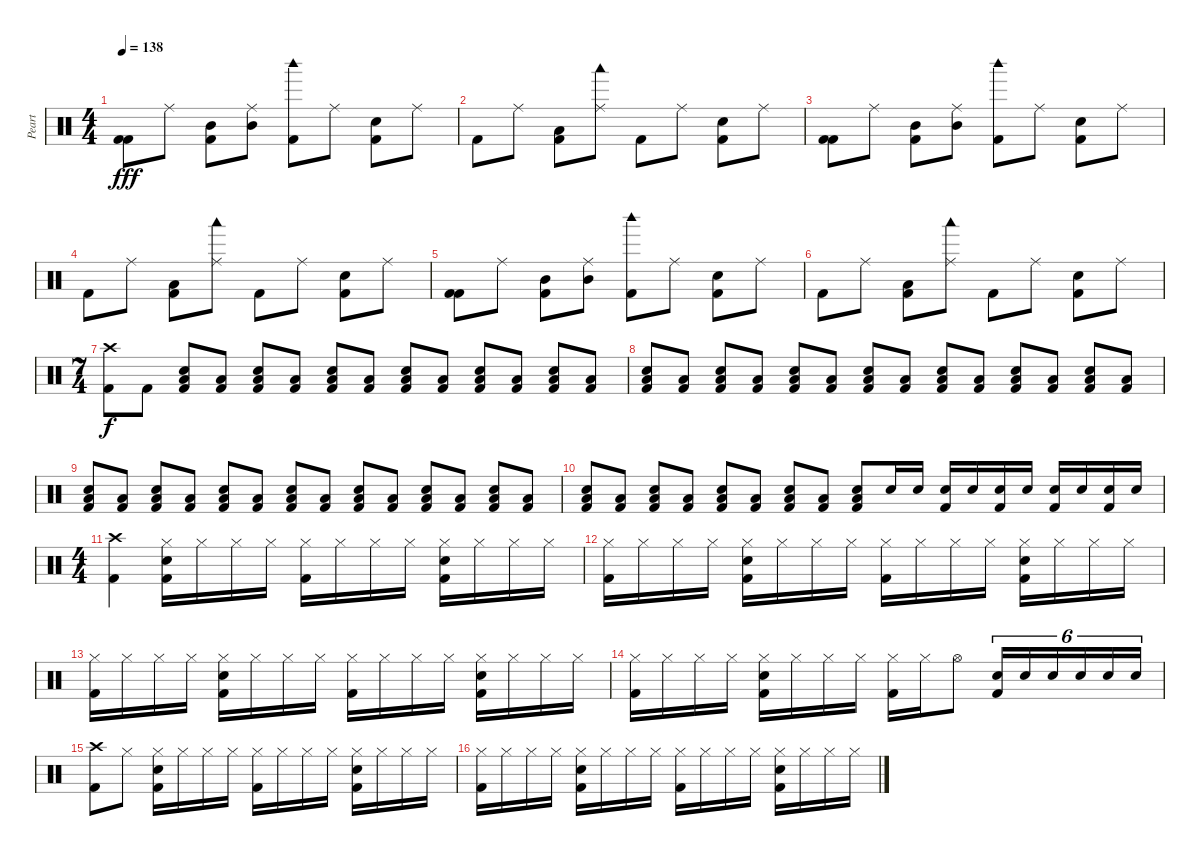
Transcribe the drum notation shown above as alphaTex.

\track ("Peart" "Peart") {instrument percussion}
\staff {score}
\articulation defaults
\ts (4 4)
\tempo 138
\clef neutral
\ks c
("Kick (hit) 2" "Kick (hit) 2").8{dy fff} "Ride (middle)".8 ("Mid Tom (hit)" "Kick (hit) 2").8 ("Ride (middle)" "Mid Tom (hit)").8 ("Woodblock high (hit)" "Kick (hit) 2").8 "Ride (middle)".8 ("Electric Snare (hit)" "Kick (hit) 2").8 "Ride (middle)".8 |
"Kick (hit) 2".8 "Ride (middle)".8 ("Low Tom (hit)" "Kick (hit) 2").8 ("Ride (middle)" "Woodblock low (hit)").8 "Kick (hit) 2".8 "Ride (middle)".8 ("Electric Snare (hit)" "Kick (hit) 2").8 "Ride (middle)".8 |
("Kick (hit) 2" "Kick (hit) 2").8 "Ride (middle)".8 ("Mid Tom (hit)" "Kick (hit) 2").8 ("Ride (middle)" "Mid Tom (hit)").8 ("Woodblock high (hit)" "Kick (hit) 2").8 "Ride (middle)".8 ("Electric Snare (hit)" "Kick (hit) 2").8 "Ride (middle)".8 |
"Kick (hit) 2".8 "Ride (middle)".8 ("Low Tom (hit)" "Kick (hit) 2").8 ("Ride (middle)" "Woodblock low (hit)").8 "Kick (hit) 2".8 "Ride (middle)".8 ("Electric Snare (hit)" "Kick (hit) 2").8 "Ride (middle)".8 |
("Kick (hit) 2" "Kick (hit) 2").8 "Ride (middle)".8 ("Mid Tom (hit)" "Kick (hit) 2").8 ("Ride (middle)" "Mid Tom (hit)").8 ("Woodblock high (hit)" "Kick (hit) 2").8 "Ride (middle)".8 ("Electric Snare (hit)" "Kick (hit) 2").8 "Ride (middle)".8 |
"Kick (hit) 2".8 "Ride (middle)".8 ("Low Tom (hit)" "Kick (hit) 2").8 ("Ride (middle)" "Woodblock low (hit)").8 "Kick (hit) 2".8 "Ride (middle)".8 ("Electric Snare (hit)" "Kick (hit) 2").8 "Ride (middle)".8 |
\ts (7 4)
("Crash high (hit)" "Kick (hit) 2").8{dy f} "Kick (hit) 2".8 ("Electric Snare (hit)" "Low Floor Tom (hit)" "Kick (hit) 2").8 ("Low Floor Tom (hit)" "Kick (hit) 2").8 ("Electric Snare (hit)" "Low Floor Tom (hit)" "Kick (hit) 2").8 ("Low Floor Tom (hit)" "Kick (hit) 2").8 ("Electric Snare (hit)" "Low Floor Tom (hit)" "Kick (hit) 2").8 ("Low Floor Tom (hit)" "Kick (hit) 2").8 ("Electric Snare (hit)" "Low Floor Tom (hit)" "Kick (hit) 2").8 ("Low Floor Tom (hit)" "Kick (hit) 2").8 ("Electric Snare (hit)" "Low Floor Tom (hit)" "Kick (hit) 2").8 ("Low Floor Tom (hit)" "Kick (hit) 2").8 ("Electric Snare (hit)" "Low Floor Tom (hit)" "Kick (hit) 2").8 ("Low Floor Tom (hit)" "Kick (hit) 2").8 |
("Low Floor Tom (hit)" "Electric Snare (hit)" "Kick (hit) 2").8 ("Low Floor Tom (hit)" "Kick (hit) 2").8 ("Electric Snare (hit)" "Low Floor Tom (hit)" "Kick (hit) 2").8 ("Low Floor Tom (hit)" "Kick (hit) 2").8 ("Electric Snare (hit)" "Low Floor Tom (hit)" "Kick (hit) 2").8 ("Low Floor Tom (hit)" "Kick (hit) 2").8 ("Electric Snare (hit)" "Low Floor Tom (hit)" "Kick (hit) 2").8 ("Low Floor Tom (hit)" "Kick (hit) 2").8 ("Electric Snare (hit)" "Low Floor Tom (hit)" "Kick (hit) 2").8 ("Low Floor Tom (hit)" "Kick (hit) 2").8 ("Electric Snare (hit)" "Low Floor Tom (hit)" "Kick (hit) 2").8 ("Low Floor Tom (hit)" "Kick (hit) 2").8 ("Electric Snare (hit)" "Low Floor Tom (hit)" "Kick (hit) 2").8 ("Low Floor Tom (hit)" "Kick (hit) 2").8 |
("Low Floor Tom (hit)" "Electric Snare (hit)" "Kick (hit) 2").8 ("Low Floor Tom (hit)" "Kick (hit) 2").8 ("Electric Snare (hit)" "Low Floor Tom (hit)" "Kick (hit) 2").8 ("Low Floor Tom (hit)" "Kick (hit) 2").8 ("Electric Snare (hit)" "Low Floor Tom (hit)" "Kick (hit) 2").8 ("Low Floor Tom (hit)" "Kick (hit) 2").8 ("Electric Snare (hit)" "Low Floor Tom (hit)" "Kick (hit) 2").8 ("Low Floor Tom (hit)" "Kick (hit) 2").8 ("Electric Snare (hit)" "Low Floor Tom (hit)" "Kick (hit) 2").8 ("Low Floor Tom (hit)" "Kick (hit) 2").8 ("Electric Snare (hit)" "Low Floor Tom (hit)" "Kick (hit) 2").8 ("Low Floor Tom (hit)" "Kick (hit) 2").8 ("Electric Snare (hit)" "Low Floor Tom (hit)" "Kick (hit) 2").8 ("Low Floor Tom (hit)" "Kick (hit) 2").8 |
("Low Floor Tom (hit)" "Electric Snare (hit)" "Kick (hit) 2").8 ("Low Floor Tom (hit)" "Kick (hit) 2").8 ("Electric Snare (hit)" "Low Floor Tom (hit)" "Kick (hit) 2").8 ("Low Floor Tom (hit)" "Kick (hit) 2").8 ("Electric Snare (hit)" "Low Floor Tom (hit)" "Kick (hit) 2").8 ("Low Floor Tom (hit)" "Kick (hit) 2").8 ("Electric Snare (hit)" "Low Floor Tom (hit)" "Kick (hit) 2").8 ("Low Floor Tom (hit)" "Kick (hit) 2").8 ("Electric Snare (hit)" "Low Floor Tom (hit)" "Kick (hit) 2").8 "Electric Snare (hit)".16 "Electric Snare (hit)".16 ("Electric Snare (hit)" "Kick (hit) 2").16 "Electric Snare (hit)".16 ("Electric Snare (hit)" "Kick (hit) 2").16 "Electric Snare (hit)".16 ("Electric Snare (hit)" "Kick (hit) 2").16 "Electric Snare (hit)".16 ("Electric Snare (hit)" "Kick (hit) 2").16 "Electric Snare (hit)".16 |
\ts (4 4)
("Crash high (hit)" "Kick (hit) 2").4 ("Hi-Hat (closed)" "Kick (hit) 2" "Electric Snare (hit)").16 "Hi-Hat (closed)".16 "Hi-Hat (closed)".16 "Hi-Hat (closed)".16 ("Hi-Hat (closed)" "Kick (hit) 2").16 "Hi-Hat (closed)".16 "Hi-Hat (closed)".16 "Hi-Hat (closed)".16 ("Hi-Hat (closed)" "Electric Snare (hit)" "Kick (hit) 2").16 "Hi-Hat (closed)".16 "Hi-Hat (closed)".16 "Hi-Hat (closed)".16 |
("Hi-Hat (closed)" "Kick (hit) 2").16 "Hi-Hat (closed)".16 "Hi-Hat (closed)".16 "Hi-Hat (closed)".16 ("Hi-Hat (closed)" "Electric Snare (hit)" "Kick (hit) 2").16 "Hi-Hat (closed)".16 "Hi-Hat (closed)".16 "Hi-Hat (closed)".16 ("Hi-Hat (closed)" "Kick (hit) 2").16 "Hi-Hat (closed)".16 "Hi-Hat (closed)".16 "Hi-Hat (closed)".16 ("Hi-Hat (closed)" "Electric Snare (hit)" "Kick (hit) 2").16 "Hi-Hat (closed)".16 "Hi-Hat (closed)".16 "Hi-Hat (closed)".16 |
("Hi-Hat (closed)" "Kick (hit) 2").16 "Hi-Hat (closed)".16 "Hi-Hat (closed)".16 "Hi-Hat (closed)".16 ("Hi-Hat (closed)" "Electric Snare (hit)" "Kick (hit) 2").16 "Hi-Hat (closed)".16 "Hi-Hat (closed)".16 "Hi-Hat (closed)".16 ("Hi-Hat (closed)" "Kick (hit) 2").16 "Hi-Hat (closed)".16 "Hi-Hat (closed)".16 "Hi-Hat (closed)".16 ("Hi-Hat (closed)" "Electric Snare (hit)" "Kick (hit) 2").16 "Hi-Hat (closed)".16 "Hi-Hat (closed)".16 "Hi-Hat (closed)".16 |
("Hi-Hat (closed)" "Kick (hit) 2").16 "Hi-Hat (closed)".16 "Hi-Hat (closed)".16 "Hi-Hat (closed)".16 ("Hi-Hat (closed)" "Electric Snare (hit)" "Kick (hit) 2").16 "Hi-Hat (closed)".16 "Hi-Hat (closed)".16 "Hi-Hat (closed)".16 ("Hi-Hat (closed)" "Kick (hit) 2").16 "Hi-Hat (closed)".16 "Hi-Hat (open)".8 ("Electric Snare (hit)" "Kick (hit) 2").16{tu (6 4)} "Electric Snare (hit)".16{tu (6 4)} "Electric Snare (hit)".16{tu (6 4)} "Electric Snare (hit)".16{tu (6 4)} "Electric Snare (hit)".16{tu (6 4)} "Electric Snare (hit)".16{tu (6 4)} |
("Crash high (hit)" "Kick (hit) 2").8 "Hi-Hat (closed)".8 ("Hi-Hat (closed)" "Kick (hit) 2" "Electric Snare (hit)").16 "Hi-Hat (closed)".16 "Hi-Hat (closed)".16 "Hi-Hat (closed)".16 ("Hi-Hat (closed)" "Kick (hit) 2").16 "Hi-Hat (closed)".16 "Hi-Hat (closed)".16 "Hi-Hat (closed)".16 ("Hi-Hat (closed)" "Electric Snare (hit)" "Kick (hit) 2").16 "Hi-Hat (closed)".16 "Hi-Hat (closed)".16 "Hi-Hat (closed)".16 |
("Hi-Hat (closed)" "Kick (hit) 2").16 "Hi-Hat (closed)".16 "Hi-Hat (closed)".16 "Hi-Hat (closed)".16 ("Hi-Hat (closed)" "Electric Snare (hit)" "Kick (hit) 2").16 "Hi-Hat (closed)".16 "Hi-Hat (closed)".16 "Hi-Hat (closed)".16 ("Hi-Hat (closed)" "Kick (hit) 2").16 "Hi-Hat (closed)".16 "Hi-Hat (closed)".16 "Hi-Hat (closed)".16 ("Hi-Hat (closed)" "Electric Snare (hit)" "Kick (hit) 2").16 "Hi-Hat (closed)".16 "Hi-Hat (closed)".16 "Hi-Hat (closed)".16
